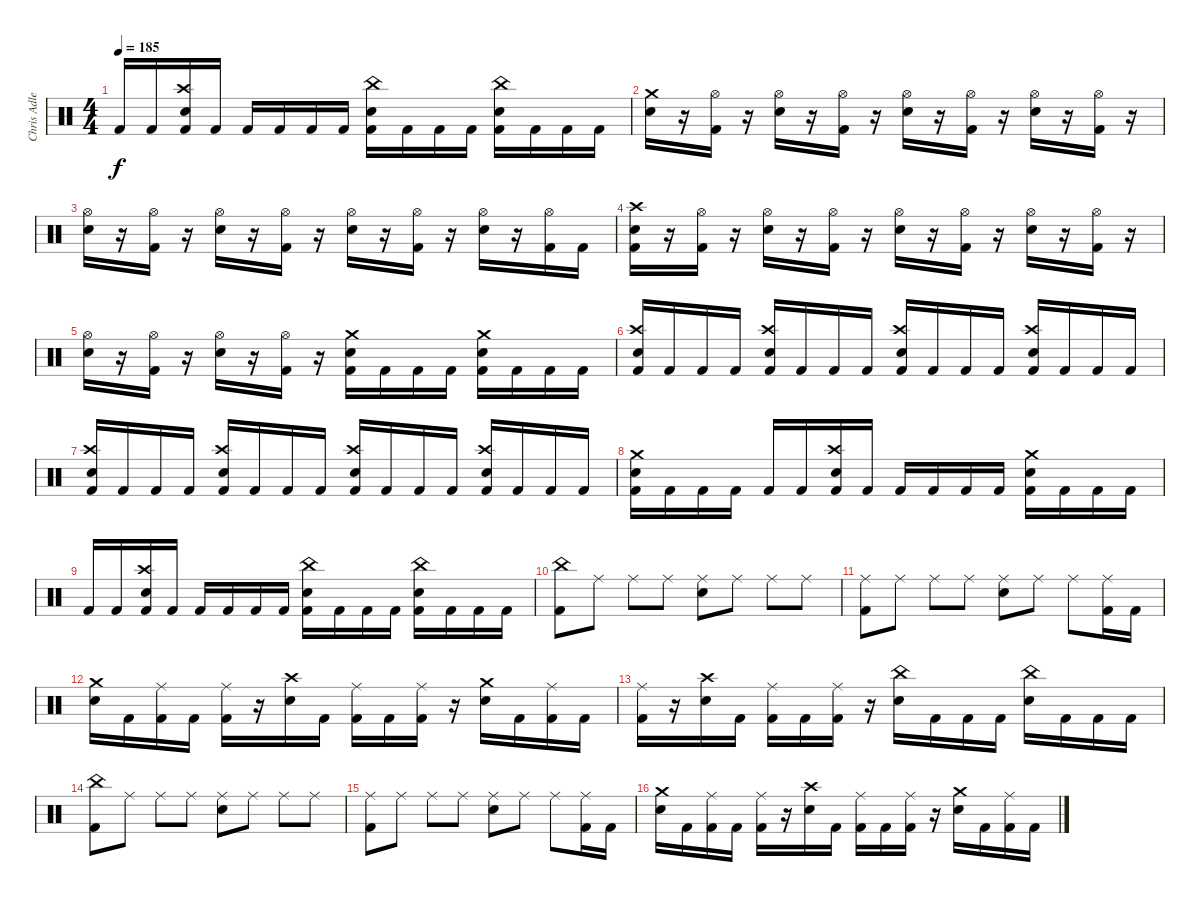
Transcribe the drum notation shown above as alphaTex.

\track ("Chris Adler" "Chris Adle") {instrument percussion}
\staff {score}
\articulation defaults
\ts (4 4)
\tempo 185
\clef neutral
\ks c "Kick (hit) 2".16{dy f} "Kick (hit) 2".16
("Crash high (hit)" "Electric Snare (hit)" "Kick (hit) 2").16 "Kick (hit) 2".16 "Kick (hit) 2".16 "Kick (hit) 2".16 "Kick (hit) 2".16 "Kick (hit) 2".16 ("China (hit)" "Electric Snare (hit)" "Kick (hit) 2").16 "Kick (hit) 2".16 "Kick (hit) 2".16 "Kick (hit) 2".16 ("China (hit)" "Electric Snare (hit)" "Kick (hit) 2").16 "Kick (hit) 2".16 "Kick (hit) 2".16 "Kick (hit) 2".16 |
("Crash medium (hit)" "Electric Snare (hit)").16 r.16 ("Hi-Hat (open)" "Kick (hit) 2").16 r.16 ("Hi-Hat (open)" "Electric Snare (hit)").16 r.16 ("Hi-Hat (open)" "Kick (hit) 2").16 r.16 ("Hi-Hat (open)" "Electric Snare (hit)").16 r.16 ("Hi-Hat (open)" "Kick (hit) 2").16 r.16 ("Hi-Hat (open)" "Electric Snare (hit)").16 r.16 ("Hi-Hat (open)" "Kick (hit) 2").16 r.16 |
("Hi-Hat (open)" "Electric Snare (hit)").16 r.16 ("Hi-Hat (open)" "Kick (hit) 2").16 r.16 ("Hi-Hat (open)" "Electric Snare (hit)").16 r.16 ("Hi-Hat (open)" "Kick (hit) 2").16 r.16 ("Hi-Hat (open)" "Electric Snare (hit)").16 r.16 ("Hi-Hat (open)" "Kick (hit) 2").16 r.16 ("Hi-Hat (open)" "Electric Snare (hit)").16 r.16 ("Hi-Hat (open)" "Kick (hit) 2").16 "Kick (hit) 2".16 |
("Crash high (hit)" "Electric Snare (hit)" "Kick (hit) 2").16 r.16 ("Hi-Hat (open)" "Kick (hit) 2").16 r.16 ("Hi-Hat (open)" "Electric Snare (hit)").16 r.16 ("Hi-Hat (open)" "Kick (hit) 2").16 r.16 ("Hi-Hat (open)" "Electric Snare (hit)").16 r.16 ("Hi-Hat (open)" "Kick (hit) 2").16 r.16 ("Hi-Hat (open)" "Electric Snare (hit)").16 r.16 ("Hi-Hat (open)" "Kick (hit) 2").16 r.16 |
("Hi-Hat (open)" "Electric Snare (hit)").16 r.16 ("Hi-Hat (open)" "Kick (hit) 2").16 r.16 ("Hi-Hat (open)" "Electric Snare (hit)").16 r.16 ("Hi-Hat (open)" "Kick (hit) 2").16 r.16 ("Crash medium (hit)" "Electric Snare (hit)" "Kick (hit) 2").16 "Kick (hit) 2".16 "Kick (hit) 2".16 "Kick (hit) 2".16 ("Crash medium (hit)" "Electric Snare (hit)" "Kick (hit) 2").16 "Kick (hit) 2".16 "Kick (hit) 2".16 "Kick (hit) 2".16 |
("Crash high (hit)" "Electric Snare (hit)" "Kick (hit) 2").16 "Kick (hit) 2".16 "Kick (hit) 2".16 "Kick (hit) 2".16 ("Crash high (hit)" "Electric Snare (hit)" "Kick (hit) 2").16 "Kick (hit) 2".16 "Kick (hit) 2".16 "Kick (hit) 2".16 ("Crash high (hit)" "Electric Snare (hit)" "Kick (hit) 2").16 "Kick (hit) 2".16 "Kick (hit) 2".16 "Kick (hit) 2".16 ("Crash high (hit)" "Electric Snare (hit)" "Kick (hit) 2").16 "Kick (hit) 2".16 "Kick (hit) 2".16 "Kick (hit) 2".16 |
("Crash high (hit)" "Electric Snare (hit)" "Kick (hit) 2").16 "Kick (hit) 2".16 "Kick (hit) 2".16 "Kick (hit) 2".16 ("Crash high (hit)" "Electric Snare (hit)" "Kick (hit) 2").16 "Kick (hit) 2".16 "Kick (hit) 2".16 "Kick (hit) 2".16 ("Crash high (hit)" "Electric Snare (hit)" "Kick (hit) 2").16 "Kick (hit) 2".16 "Kick (hit) 2".16 "Kick (hit) 2".16 ("Crash high (hit)" "Electric Snare (hit)" "Kick (hit) 2").16 "Kick (hit) 2".16 "Kick (hit) 2".16 "Kick (hit) 2".16 |
("Crash medium (hit)" "Electric Snare (hit)" "Kick (hit) 2").16 "Kick (hit) 2".16 "Kick (hit) 2".16 "Kick (hit) 2".16 "Kick (hit) 2".16 "Kick (hit) 2".16 ("Crash high (hit)" "Electric Snare (hit)" "Kick (hit) 2").16 "Kick (hit) 2".16 "Kick (hit) 2".16 "Kick (hit) 2".16 "Kick (hit) 2".16 "Kick (hit) 2".16 ("Crash medium (hit)" "Electric Snare (hit)" "Kick (hit) 2").16 "Kick (hit) 2".16 "Kick (hit) 2".16 "Kick (hit) 2".16 |
"Kick (hit) 2".16 "Kick (hit) 2".16 ("Crash high (hit)" "Electric Snare (hit)" "Kick (hit) 2").16 "Kick (hit) 2".16 "Kick (hit) 2".16 "Kick (hit) 2".16 "Kick (hit) 2".16 "Kick (hit) 2".16 ("China (hit)" "Electric Snare (hit)" "Kick (hit) 2").16 "Kick (hit) 2".16 "Kick (hit) 2".16 "Kick (hit) 2".16 ("China (hit)" "Electric Snare (hit)" "Kick (hit) 2").16 "Kick (hit) 2".16 "Kick (hit) 2".16 "Kick (hit) 2".16 |
("China (hit)" "Kick (hit) 2").8 "Ride (middle)".8 "Ride (middle)".8 "Ride (middle)".8 ("Ride (middle)" "Electric Snare (hit)").8 "Ride (middle)".8 "Ride (middle)".8 "Ride (middle)".8 |
("Ride (middle)" "Kick (hit) 2").8 "Ride (middle)".8 "Ride (middle)".8 "Ride (middle)".8 ("Ride (middle)" "Electric Snare (hit)").8 "Ride (middle)".8 "Ride (middle)".8 ("Ride (middle)" "Kick (hit) 2").16 "Kick (hit) 2".16 |
("Crash medium (hit)" "Electric Snare (hit)").16 "Kick (hit) 2".16 ("Ride (middle)" "Kick (hit) 2").16 "Kick (hit) 2".16 ("Ride (middle)" "Kick (hit) 2").16 r.16 ("Crash high (hit)" "Electric Snare (hit)").16 "Kick (hit) 2".16 ("Ride (middle)" "Kick (hit) 2").16 "Kick (hit) 2".16 ("Ride (middle)" "Kick (hit) 2").16 r.16 ("Crash medium (hit)" "Electric Snare (hit)").16 "Kick (hit) 2".16 ("Ride (middle)" "Kick (hit) 2").16 "Kick (hit) 2".16 |
("Ride (middle)" "Kick (hit) 2").16 r.16 ("Crash high (hit)" "Electric Snare (hit)").16 "Kick (hit) 2".16 ("Ride (middle)" "Kick (hit) 2").16 "Kick (hit) 2".16 ("Ride (middle)" "Kick (hit) 2").16 r.16 ("China (hit)" "Electric Snare (hit)").16 "Kick (hit) 2".16 "Kick (hit) 2".16 "Kick (hit) 2".16 ("China (hit)" "Electric Snare (hit)").16 "Kick (hit) 2".16 "Kick (hit) 2".16 "Kick (hit) 2".16 |
("China (hit)" "Kick (hit) 2").8 "Ride (middle)".8 "Ride (middle)".8 "Ride (middle)".8 ("Ride (middle)" "Electric Snare (hit)").8 "Ride (middle)".8 "Ride (middle)".8 "Ride (middle)".8 |
("Ride (middle)" "Kick (hit) 2").8 "Ride (middle)".8 "Ride (middle)".8 "Ride (middle)".8 ("Ride (middle)" "Electric Snare (hit)").8 "Ride (middle)".8 "Ride (middle)".8 ("Ride (middle)" "Kick (hit) 2").16 "Kick (hit) 2".16 |
("Crash medium (hit)" "Electric Snare (hit)").16 "Kick (hit) 2".16 ("Ride (middle)" "Kick (hit) 2").16 "Kick (hit) 2".16 ("Ride (middle)" "Kick (hit) 2").16 r.16 ("Crash high (hit)" "Electric Snare (hit)").16 "Kick (hit) 2".16 ("Ride (middle)" "Kick (hit) 2").16 "Kick (hit) 2".16 ("Ride (middle)" "Kick (hit) 2").16 r.16 ("Crash medium (hit)" "Electric Snare (hit)").16 "Kick (hit) 2".16 ("Ride (middle)" "Kick (hit) 2").16 "Kick (hit) 2".16
